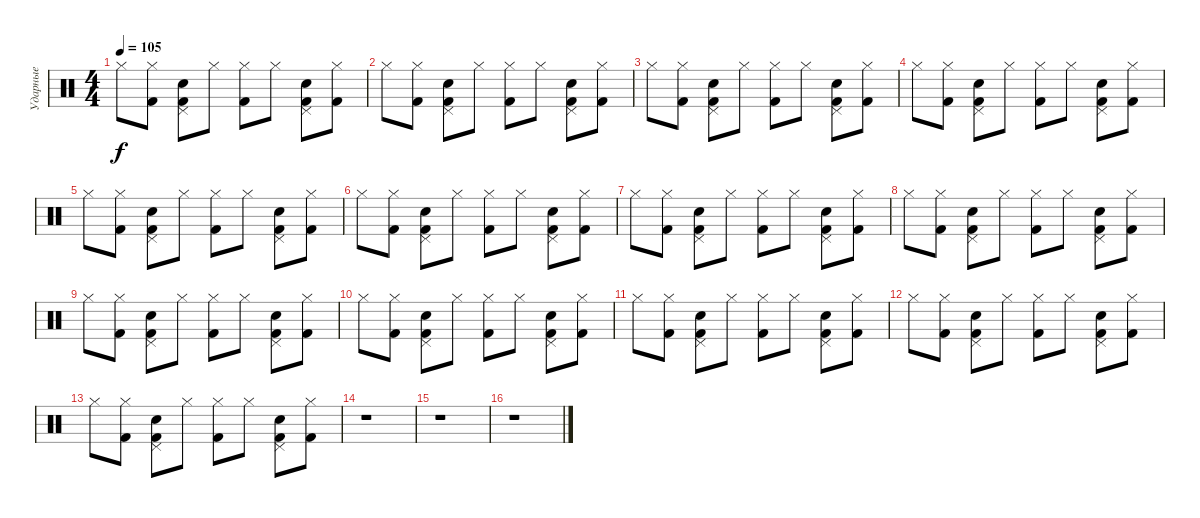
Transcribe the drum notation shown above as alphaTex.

\track ("Ударные" "Ударные") {instrument percussion}
\staff {score}
\articulation defaults
\ts (4 4)
\tempo 105
\clef neutral
\ks c "Hi-Hat (closed)".8{dy f}
("Hi-Hat (closed)" "Kick (hit) 2").8 ("Pedal Hi-Hat (hit)" "Electric Snare (hit)" "Kick (hit) 2").8 "Hi-Hat (closed)".8 ("Hi-Hat (closed)" "Kick (hit) 2").8 "Hi-Hat (closed)".8 ("Pedal Hi-Hat (hit)" "Electric Snare (hit)" "Kick (hit) 2").8 ("Hi-Hat (closed)" "Kick (hit) 2").8 |
"Hi-Hat (closed)".8 ("Hi-Hat (closed)" "Kick (hit) 2").8 ("Pedal Hi-Hat (hit)" "Electric Snare (hit)" "Kick (hit) 2").8 "Hi-Hat (closed)".8 ("Hi-Hat (closed)" "Kick (hit) 2").8 "Hi-Hat (closed)".8 ("Pedal Hi-Hat (hit)" "Electric Snare (hit)" "Kick (hit) 2").8 ("Hi-Hat (closed)" "Kick (hit) 2").8 |
"Hi-Hat (closed)".8 ("Hi-Hat (closed)" "Kick (hit) 2").8 ("Pedal Hi-Hat (hit)" "Electric Snare (hit)" "Kick (hit) 2").8 "Hi-Hat (closed)".8 ("Hi-Hat (closed)" "Kick (hit) 2").8 "Hi-Hat (closed)".8 ("Pedal Hi-Hat (hit)" "Electric Snare (hit)" "Kick (hit) 2").8 ("Hi-Hat (closed)" "Kick (hit) 2").8 |
"Hi-Hat (closed)".8 ("Hi-Hat (closed)" "Kick (hit) 2").8 ("Pedal Hi-Hat (hit)" "Electric Snare (hit)" "Kick (hit) 2").8 "Hi-Hat (closed)".8 ("Hi-Hat (closed)" "Kick (hit) 2").8 "Hi-Hat (closed)".8 ("Pedal Hi-Hat (hit)" "Electric Snare (hit)" "Kick (hit) 2").8 ("Hi-Hat (closed)" "Kick (hit) 2").8 |
"Hi-Hat (closed)".8 ("Hi-Hat (closed)" "Kick (hit) 2").8 ("Pedal Hi-Hat (hit)" "Electric Snare (hit)" "Kick (hit) 2").8 "Hi-Hat (closed)".8 ("Hi-Hat (closed)" "Kick (hit) 2").8 "Hi-Hat (closed)".8 ("Pedal Hi-Hat (hit)" "Electric Snare (hit)" "Kick (hit) 2").8 ("Hi-Hat (closed)" "Kick (hit) 2").8 |
"Hi-Hat (closed)".8 ("Hi-Hat (closed)" "Kick (hit) 2").8 ("Pedal Hi-Hat (hit)" "Electric Snare (hit)" "Kick (hit) 2").8 "Hi-Hat (closed)".8 ("Hi-Hat (closed)" "Kick (hit) 2").8 "Hi-Hat (closed)".8 ("Pedal Hi-Hat (hit)" "Electric Snare (hit)" "Kick (hit) 2").8 ("Hi-Hat (closed)" "Kick (hit) 2").8 |
"Hi-Hat (closed)".8 ("Hi-Hat (closed)" "Kick (hit) 2").8 ("Pedal Hi-Hat (hit)" "Electric Snare (hit)" "Kick (hit) 2").8 "Hi-Hat (closed)".8 ("Hi-Hat (closed)" "Kick (hit) 2").8 "Hi-Hat (closed)".8 ("Pedal Hi-Hat (hit)" "Electric Snare (hit)" "Kick (hit) 2").8 ("Hi-Hat (closed)" "Kick (hit) 2").8 |
"Hi-Hat (closed)".8 ("Hi-Hat (closed)" "Kick (hit) 2").8 ("Pedal Hi-Hat (hit)" "Electric Snare (hit)" "Kick (hit) 2").8 "Hi-Hat (closed)".8 ("Hi-Hat (closed)" "Kick (hit) 2").8 "Hi-Hat (closed)".8 ("Pedal Hi-Hat (hit)" "Electric Snare (hit)" "Kick (hit) 2").8 ("Hi-Hat (closed)" "Kick (hit) 2").8 |
"Hi-Hat (closed)".8 ("Hi-Hat (closed)" "Kick (hit) 2").8 ("Pedal Hi-Hat (hit)" "Electric Snare (hit)" "Kick (hit) 2").8 "Hi-Hat (closed)".8 ("Hi-Hat (closed)" "Kick (hit) 2").8 "Hi-Hat (closed)".8 ("Pedal Hi-Hat (hit)" "Electric Snare (hit)" "Kick (hit) 2").8 ("Hi-Hat (closed)" "Kick (hit) 2").8 |
"Hi-Hat (closed)".8 ("Hi-Hat (closed)" "Kick (hit) 2").8 ("Pedal Hi-Hat (hit)" "Electric Snare (hit)" "Kick (hit) 2").8 "Hi-Hat (closed)".8 ("Hi-Hat (closed)" "Kick (hit) 2").8 "Hi-Hat (closed)".8 ("Pedal Hi-Hat (hit)" "Electric Snare (hit)" "Kick (hit) 2").8 ("Hi-Hat (closed)" "Kick (hit) 2").8 |
"Hi-Hat (closed)".8 ("Hi-Hat (closed)" "Kick (hit) 2").8 ("Pedal Hi-Hat (hit)" "Electric Snare (hit)" "Kick (hit) 2").8 "Hi-Hat (closed)".8 ("Hi-Hat (closed)" "Kick (hit) 2").8 "Hi-Hat (closed)".8 ("Pedal Hi-Hat (hit)" "Electric Snare (hit)" "Kick (hit) 2").8 ("Hi-Hat (closed)" "Kick (hit) 2").8 |
"Hi-Hat (closed)".8 ("Hi-Hat (closed)" "Kick (hit) 2").8 ("Pedal Hi-Hat (hit)" "Electric Snare (hit)" "Kick (hit) 2").8 "Hi-Hat (closed)".8 ("Hi-Hat (closed)" "Kick (hit) 2").8 "Hi-Hat (closed)".8 ("Pedal Hi-Hat (hit)" "Electric Snare (hit)" "Kick (hit) 2").8 ("Hi-Hat (closed)" "Kick (hit) 2").8 |
"Hi-Hat (closed)".8 ("Hi-Hat (closed)" "Kick (hit) 2").8 ("Pedal Hi-Hat (hit)" "Electric Snare (hit)" "Kick (hit) 2").8 "Hi-Hat (closed)".8 ("Hi-Hat (closed)" "Kick (hit) 2").8 "Hi-Hat (closed)".8 ("Pedal Hi-Hat (hit)" "Electric Snare (hit)" "Kick (hit) 2").8 ("Hi-Hat (closed)" "Kick (hit) 2").8 |
r.1 |
r.1 |
r.1
